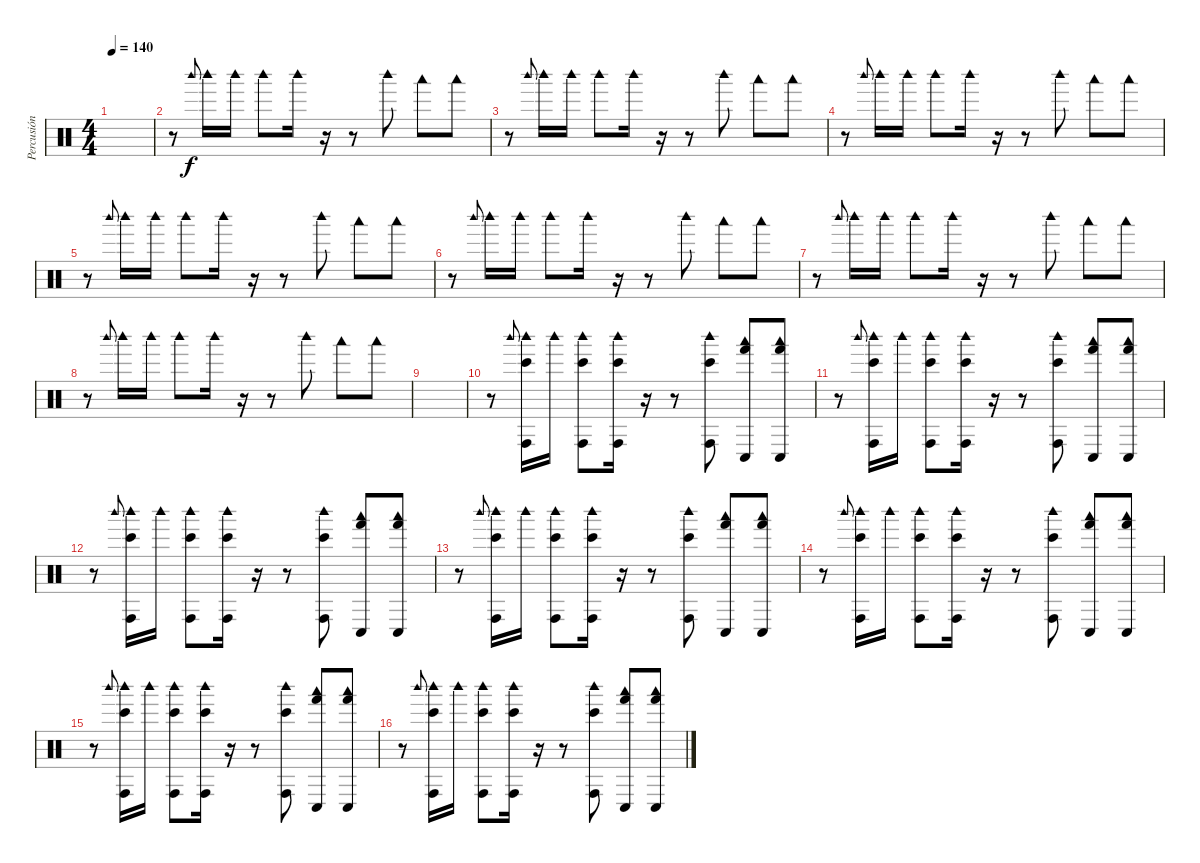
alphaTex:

\track ("Percusión" "Percusión") {instrument percussion}
\staff {score}
\articulation defaults
\ts (4 4)
\tempo 140
\clef neutral
\ks c
|
r.8 "Woodblock high (hit)".8{gr onbeat} "Woodblock high (hit)".16 "Woodblock high (hit)".16 "Woodblock high (hit)".8 "Woodblock high (hit)".16 r.16 r.8 "Woodblock high (hit)".8 "Woodblock low (hit)".8 "Woodblock low (hit)".8 |
r.8 "Woodblock high (hit)".8{gr onbeat} "Woodblock high (hit)".16 "Woodblock high (hit)".16 "Woodblock high (hit)".8 "Woodblock high (hit)".16 r.16 r.8 "Woodblock high (hit)".8 "Woodblock low (hit)".8 "Woodblock low (hit)".8 |
r.8 "Woodblock high (hit)".8{gr onbeat} "Woodblock high (hit)".16 "Woodblock high (hit)".16 "Woodblock high (hit)".8 "Woodblock high (hit)".16 r.16 r.8 "Woodblock high (hit)".8 "Woodblock low (hit)".8 "Woodblock low (hit)".8 |
r.8 "Woodblock high (hit)".8{gr onbeat} "Woodblock high (hit)".16 "Woodblock high (hit)".16 "Woodblock high (hit)".8 "Woodblock high (hit)".16 r.16 r.8 "Woodblock high (hit)".8 "Woodblock low (hit)".8 "Woodblock low (hit)".8 |
r.8 "Woodblock high (hit)".8{gr onbeat} "Woodblock high (hit)".16 "Woodblock high (hit)".16 "Woodblock high (hit)".8 "Woodblock high (hit)".16 r.16 r.8 "Woodblock high (hit)".8 "Woodblock low (hit)".8 "Woodblock low (hit)".8 |
r.8 "Woodblock high (hit)".8{gr onbeat} "Woodblock high (hit)".16 "Woodblock high (hit)".16 "Woodblock high (hit)".8 "Woodblock high (hit)".16 r.16 r.8 "Woodblock high (hit)".8 "Woodblock low (hit)".8 "Woodblock low (hit)".8 |
r.8 "Woodblock high (hit)".8{gr onbeat} "Woodblock high (hit)".16 "Woodblock high (hit)".16 "Woodblock high (hit)".8 "Woodblock high (hit)".16 r.16 r.8 "Woodblock high (hit)".8 "Woodblock low (hit)".8 "Woodblock low (hit)".8 |
|
r.8 "Woodblock high (hit)".8{gr onbeat} ("Woodblock high (hit)" "Bongo High (hit)" "Conga high (hit)").16 "Woodblock high (hit)".16 ("Woodblock high (hit)" "Bongo High (hit)" "Conga high (hit)").8 ("Woodblock high (hit)" "Bongo High (hit)" "Conga high (hit)").16 r.16 r.8 ("Woodblock high (hit)" "Bongo High (hit)" "Conga high (hit)").8 ("Woodblock low (hit)" "Hand (hit)" "Conga low (hit)").8 ("Woodblock low (hit)" "Hand (hit)" "Conga low (hit)").8 |
r.8 "Woodblock high (hit)".8{gr onbeat} ("Woodblock high (hit)" "Bongo High (hit)" "Conga high (hit)").16 "Woodblock high (hit)".16 ("Woodblock high (hit)" "Bongo High (hit)" "Conga high (hit)").8 ("Woodblock high (hit)" "Bongo High (hit)" "Conga high (hit)").16 r.16 r.8 ("Woodblock high (hit)" "Bongo High (hit)" "Conga high (hit)").8 ("Woodblock low (hit)" "Hand (hit)" "Conga low (hit)").8 ("Woodblock low (hit)" "Hand (hit)" "Conga low (hit)").8 |
r.8 "Woodblock high (hit)".8{gr onbeat} ("Woodblock high (hit)" "Bongo High (hit)" "Conga high (hit)").16 "Woodblock high (hit)".16 ("Woodblock high (hit)" "Bongo High (hit)" "Conga high (hit)").8 ("Woodblock high (hit)" "Bongo High (hit)" "Conga high (hit)").16 r.16 r.8 ("Woodblock high (hit)" "Bongo High (hit)" "Conga high (hit)").8 ("Woodblock low (hit)" "Hand (hit)" "Conga low (hit)").8 ("Woodblock low (hit)" "Hand (hit)" "Conga low (hit)").8 |
r.8 "Woodblock high (hit)".8{gr onbeat} ("Woodblock high (hit)" "Bongo High (hit)" "Conga high (hit)").16 "Woodblock high (hit)".16 ("Woodblock high (hit)" "Bongo High (hit)" "Conga high (hit)").8 ("Woodblock high (hit)" "Bongo High (hit)" "Conga high (hit)").16 r.16 r.8 ("Woodblock high (hit)" "Bongo High (hit)" "Conga high (hit)").8 ("Woodblock low (hit)" "Hand (hit)" "Conga low (hit)").8 ("Woodblock low (hit)" "Hand (hit)" "Conga low (hit)").8 |
r.8 "Woodblock high (hit)".8{gr onbeat} ("Woodblock high (hit)" "Bongo High (hit)" "Conga high (hit)").16 "Woodblock high (hit)".16 ("Woodblock high (hit)" "Bongo High (hit)" "Conga high (hit)").8 ("Woodblock high (hit)" "Bongo High (hit)" "Conga high (hit)").16 r.16 r.8 ("Woodblock high (hit)" "Bongo High (hit)" "Conga high (hit)").8 ("Woodblock low (hit)" "Hand (hit)" "Conga low (hit)").8 ("Woodblock low (hit)" "Hand (hit)" "Conga low (hit)").8 |
r.8 "Woodblock high (hit)".8{gr onbeat} ("Woodblock high (hit)" "Bongo High (hit)" "Conga high (hit)").16 "Woodblock high (hit)".16 ("Woodblock high (hit)" "Bongo High (hit)" "Conga high (hit)").8 ("Woodblock high (hit)" "Bongo High (hit)" "Conga high (hit)").16 r.16 r.8 ("Woodblock high (hit)" "Bongo High (hit)" "Conga high (hit)").8 ("Woodblock low (hit)" "Hand (hit)" "Conga low (hit)").8 ("Woodblock low (hit)" "Hand (hit)" "Conga low (hit)").8 |
r.8 "Woodblock high (hit)".8{gr onbeat} ("Woodblock high (hit)" "Bongo High (hit)" "Conga high (hit)").16 "Woodblock high (hit)".16 ("Woodblock high (hit)" "Bongo High (hit)" "Conga high (hit)").8 ("Woodblock high (hit)" "Bongo High (hit)" "Conga high (hit)").16 r.16 r.8 ("Woodblock high (hit)" "Bongo High (hit)" "Conga high (hit)").8 ("Woodblock low (hit)" "Hand (hit)" "Conga low (hit)").8 ("Woodblock low (hit)" "Hand (hit)" "Conga low (hit)").8
